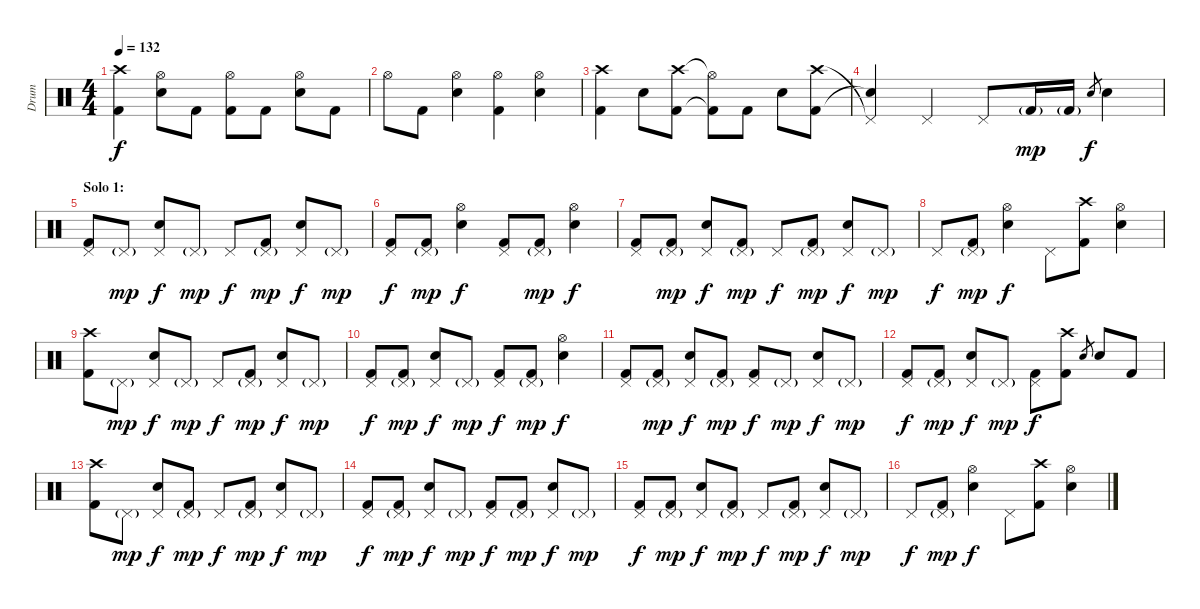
\track ("Drum" "Drum") {instrument percussion}
\staff {score}
\articulation defaults
\ts (4 4)
\tempo 132
\clef neutral
\ks c
("Crash high (hit)" "Kick (hit) 2").4{dy f} ("Hi-Hat (open)" "Snare (hit) 2").8 "Kick (hit) 2".8 ("Hi-Hat (open)" "Kick (hit) 2").8 "Kick (hit) 2".8 ("Hi-Hat (open)" "Snare (hit) 2").8 "Kick (hit) 2".8 |
"Hi-Hat (open)".8 "Kick (hit) 2".8 ("Hi-Hat (open)" "Snare (hit) 2").4 ("Hi-Hat (open)" "Kick (hit) 2").4 ("Hi-Hat (open)" "Snare (hit) 2").4 |
("Crash high (hit)" "Kick (hit) 2").4 "Snare (hit) 2".8 ("Crash high (hit)" "Kick (hit) 2").8 ("Hi-Hat (open)"{t} "Kick (hit) 2"{t}).8 "Kick (hit) 2".8 "Snare (hit) 2".8 ("Crash high (hit)" "Kick (hit) 2").8 |
("Pedal Hi-Hat (hit)"{t} "Snare (hit)"{t}).4 "Pedal Hi-Hat (hit)".4 "Pedal Hi-Hat (hit)".8 "Kick (hit) 2"{g}.16{dy mp} "Kick (hit) 2"{g}.16 "Snare (hit) 2".8{gr dy f} "Snare (hit) 2".4 |
\section ("" "Solo 1:")
("Pedal Hi-Hat (hit)" "Kick (hit) 2").8 "Pedal Hi-Hat (hit)"{g}.8{dy mp} ("Pedal Hi-Hat (hit)" "Snare (hit) 2").8{dy f} "Pedal Hi-Hat (hit)"{g}.8{dy mp} "Pedal Hi-Hat (hit)".8{dy f} ("Pedal Hi-Hat (hit)"{g} "Kick (hit) 2").8{dy mp} ("Pedal Hi-Hat (hit)" "Snare (hit) 2").8{dy f} "Pedal Hi-Hat (hit)"{g}.8{dy mp} |
("Pedal Hi-Hat (hit)" "Kick (hit) 2").8{dy f} ("Pedal Hi-Hat (hit)"{g} "Kick (hit) 2").8{dy mp} ("Hi-Hat (open)" "Snare (hit) 2").4{dy f} ("Pedal Hi-Hat (hit)" "Kick (hit) 2").8 ("Pedal Hi-Hat (hit)"{g} "Kick (hit) 2").8{dy mp} ("Hi-Hat (open)" "Snare (hit) 2").4{dy f} |
("Pedal Hi-Hat (hit)" "Kick (hit) 2").8 ("Pedal Hi-Hat (hit)"{g} "Kick (hit) 2").8{dy mp} ("Pedal Hi-Hat (hit)" "Snare (hit) 2").8{dy f} ("Pedal Hi-Hat (hit)"{g} "Kick (hit) 2").8{dy mp} "Pedal Hi-Hat (hit)".8{dy f} ("Pedal Hi-Hat (hit)"{g} "Kick (hit) 2").8{dy mp} ("Pedal Hi-Hat (hit)" "Snare (hit) 2").8{dy f} "Pedal Hi-Hat (hit)"{g}.8{dy mp} |
"Pedal Hi-Hat (hit)".8{dy f} ("Pedal Hi-Hat (hit)"{g} "Kick (hit) 2").8{dy mp} ("Hi-Hat (open)" "Snare (hit) 2").4{dy f} "Pedal Hi-Hat (hit)".8 ("Crash high (hit)" "Kick (hit) 2").8 ("Hi-Hat (open)" "Snare (hit) 2").4 |
("Crash high (hit)" "Kick (hit) 2").8 "Pedal Hi-Hat (hit)"{g}.8{dy mp} ("Pedal Hi-Hat (hit)" "Snare (hit) 2").8{dy f} "Pedal Hi-Hat (hit)"{g}.8{dy mp} "Pedal Hi-Hat (hit)".8{dy f} ("Pedal Hi-Hat (hit)"{g} "Kick (hit) 2").8{dy mp} ("Pedal Hi-Hat (hit)" "Snare (hit) 2").8{dy f} "Pedal Hi-Hat (hit)"{g}.8{dy mp} |
("Pedal Hi-Hat (hit)" "Kick (hit) 2").8{dy f} ("Pedal Hi-Hat (hit)"{g} "Kick (hit) 2").8{dy mp} ("Pedal Hi-Hat (hit)" "Snare (hit) 2").8{dy f} "Pedal Hi-Hat (hit)"{g}.8{dy mp} ("Pedal Hi-Hat (hit)" "Kick (hit) 2").8{dy f} ("Pedal Hi-Hat (hit)"{g} "Kick (hit) 2").8{dy mp} ("Hi-Hat (open)" "Snare (hit) 2").4{dy f} |
("Pedal Hi-Hat (hit)" "Kick (hit) 2").8 ("Pedal Hi-Hat (hit)"{g} "Kick (hit) 2").8{dy mp} ("Pedal Hi-Hat (hit)" "Snare (hit) 2").8{dy f} ("Pedal Hi-Hat (hit)"{g} "Kick (hit) 2").8{dy mp} ("Pedal Hi-Hat (hit)" "Kick (hit) 2").8{dy f} "Pedal Hi-Hat (hit)"{g}.8{dy mp} ("Pedal Hi-Hat (hit)" "Snare (hit) 2").8{dy f} "Pedal Hi-Hat (hit)"{g}.8{dy mp} |
("Pedal Hi-Hat (hit)" "Kick (hit) 2").8{dy f} ("Pedal Hi-Hat (hit)"{g} "Kick (hit) 2").8{dy mp} ("Pedal Hi-Hat (hit)" "Snare (hit) 2").8{dy f} "Pedal Hi-Hat (hit)"{g}.8{dy mp} ("Pedal Hi-Hat (hit)" "Kick (hit) 2").8{dy f} ("Crash high (hit)" "Kick (hit) 2").8 "Snare (hit) 2".8{gr} "Snare (hit) 2".8 "Kick (hit) 2".8 |
("Crash high (hit)" "Kick (hit) 2").8 "Pedal Hi-Hat (hit)"{g}.8{dy mp} ("Pedal Hi-Hat (hit)" "Snare (hit) 2").8{dy f} ("Pedal Hi-Hat (hit)"{g} "Kick (hit) 2").8{dy mp} "Pedal Hi-Hat (hit)".8{dy f} ("Pedal Hi-Hat (hit)"{g} "Kick (hit) 2").8{dy mp} ("Pedal Hi-Hat (hit)" "Snare (hit) 2").8{dy f} "Pedal Hi-Hat (hit)"{g}.8{dy mp} |
("Pedal Hi-Hat (hit)" "Kick (hit) 2").8{dy f} ("Pedal Hi-Hat (hit)"{g} "Kick (hit) 2").8{dy mp} ("Pedal Hi-Hat (hit)" "Snare (hit) 2").8{dy f} "Pedal Hi-Hat (hit)"{g}.8{dy mp} ("Pedal Hi-Hat (hit)" "Kick (hit) 2").8{dy f} ("Pedal Hi-Hat (hit)"{g} "Kick (hit) 2").8{dy mp} ("Pedal Hi-Hat (hit)" "Snare (hit) 2").8{dy f} "Pedal Hi-Hat (hit)"{g}.8{dy mp} |
("Pedal Hi-Hat (hit)" "Kick (hit) 2").8{dy f} ("Pedal Hi-Hat (hit)"{g} "Kick (hit) 2").8{dy mp} ("Pedal Hi-Hat (hit)" "Snare (hit) 2").8{dy f} ("Pedal Hi-Hat (hit)"{g} "Kick (hit) 2").8{dy mp} "Pedal Hi-Hat (hit)".8{dy f} ("Pedal Hi-Hat (hit)"{g} "Kick (hit) 2").8{dy mp} ("Pedal Hi-Hat (hit)" "Snare (hit) 2").8{dy f} "Pedal Hi-Hat (hit)"{g}.8{dy mp} |
"Pedal Hi-Hat (hit)".8{dy f} ("Pedal Hi-Hat (hit)"{g} "Kick (hit) 2").8{dy mp} ("Hi-Hat (open)" "Snare (hit) 2").4{dy f} "Pedal Hi-Hat (hit)".8 ("Crash high (hit)" "Kick (hit) 2").8 ("Hi-Hat (open)" "Snare (hit) 2").4
